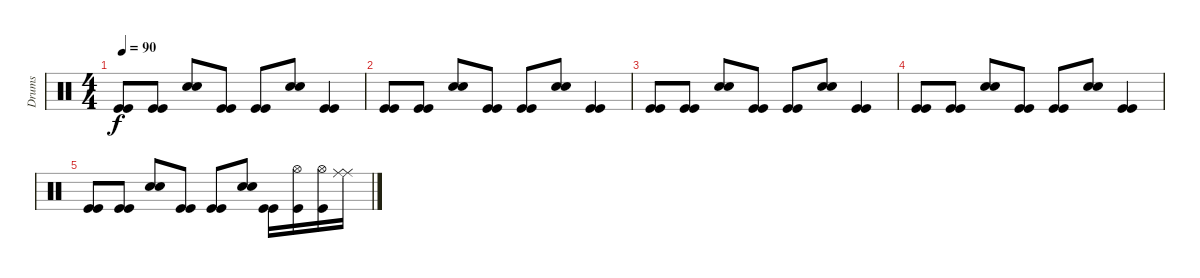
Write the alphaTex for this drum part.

\track ("Drums" "Drums") {instrument percussion}
\staff {score}
\articulation defaults
\ts (4 4)
\tempo 90
\clef neutral
\ks c
("Kick (hit)" "Kick (hit)").8{dy f} ("Kick (hit)" "Kick (hit)").8 ("Electric Snare (hit)" "Electric Snare (hit)").8 ("Kick (hit)" "Kick (hit)").8 ("Kick (hit)" "Kick (hit)").8 ("Electric Snare (hit)" "Electric Snare (hit)").8 ("Kick (hit)" "Kick (hit)").4 |
("Kick (hit)" "Kick (hit)").8 ("Kick (hit)" "Kick (hit)").8 ("Electric Snare (hit)" "Electric Snare (hit)").8 ("Kick (hit)" "Kick (hit)").8 ("Kick (hit)" "Kick (hit)").8 ("Electric Snare (hit)" "Electric Snare (hit)").8 ("Kick (hit)" "Kick (hit)").4 |
("Kick (hit)" "Kick (hit)").8 ("Kick (hit)" "Kick (hit)").8 ("Electric Snare (hit)" "Electric Snare (hit)").8 ("Kick (hit)" "Kick (hit)").8 ("Kick (hit)" "Kick (hit)").8 ("Electric Snare (hit)" "Electric Snare (hit)").8 ("Kick (hit)" "Kick (hit)").4 |
("Kick (hit)" "Kick (hit)").8 ("Kick (hit)" "Kick (hit)").8 ("Electric Snare (hit)" "Electric Snare (hit)").8 ("Kick (hit)" "Kick (hit)").8 ("Kick (hit)" "Kick (hit)").8 ("Electric Snare (hit)" "Electric Snare (hit)").8 ("Kick (hit)" "Kick (hit)").4 |
("Kick (hit)" "Kick (hit)").8 ("Kick (hit)" "Kick (hit)").8 ("Electric Snare (hit)" "Electric Snare (hit)").8 ("Kick (hit)" "Kick (hit)").8 ("Kick (hit)" "Kick (hit)").8 ("Electric Snare (hit)" "Electric Snare (hit)").8 ("Kick (hit)" "Kick (hit)").16 ("Hi-Hat (open)" "Kick (hit)").16 ("Hi-Hat (open)" "Kick (hit)").16 ("Ride (middle)" "Ride (middle)").16
